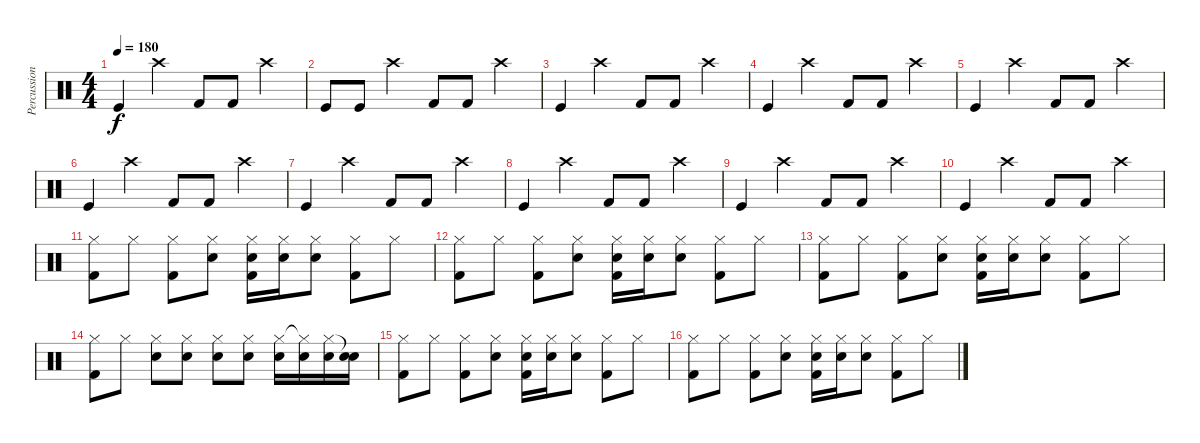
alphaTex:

\track ("Percussion" "Percussion") {instrument percussion}
\staff {score}
\articulation defaults
\ts (4 4)
\tempo 180
\clef neutral
\ks c "Kick (hit)".4{dy f} "Crash high (hit)".4 "Kick (hit) 2".8 "Kick (hit) 2".8 "Crash high (hit)".4
|
"Kick (hit)".8 "Kick (hit)".8 "Crash high (hit)".4 "Kick (hit) 2".8 "Kick (hit) 2".8 "Crash high (hit)".4 |
"Kick (hit)".4 "Crash high (hit)".4 "Kick (hit) 2".8 "Kick (hit) 2".8 "Crash high (hit)".4 |
"Kick (hit)".4 "Crash high (hit)".4 "Kick (hit) 2".8 "Kick (hit) 2".8 "Crash high (hit)".4 |
"Kick (hit)".4 "Crash high (hit)".4 "Kick (hit) 2".8 "Kick (hit) 2".8 "Crash high (hit)".4 |
"Kick (hit)".4 "Crash high (hit)".4 "Kick (hit) 2".8 "Kick (hit) 2".8 "Crash high (hit)".4 |
"Kick (hit)".4 "Crash high (hit)".4 "Kick (hit) 2".8 "Kick (hit) 2".8 "Crash high (hit)".4 |
"Kick (hit)".4 "Crash high (hit)".4 "Kick (hit) 2".8 "Kick (hit) 2".8 "Crash high (hit)".4 |
"Kick (hit)".4 "Crash high (hit)".4 "Kick (hit) 2".8 "Kick (hit) 2".8 "Crash high (hit)".4 |
"Kick (hit)".4 "Crash high (hit)".4 "Kick (hit) 2".8 "Kick (hit) 2".8 "Crash high (hit)".4 |
("Hi-Hat (closed)" "Kick (hit) 2").8 "Hi-Hat (closed)".8 ("Hi-Hat (closed)" "Kick (hit) 2").8 ("Hi-Hat (closed)" "Electric Snare (hit)").8 ("Hi-Hat (closed)" "Electric Snare (hit)" "Kick (hit) 2").16 ("Hi-Hat (closed)" "Electric Snare (hit)").16 ("Hi-Hat (closed)" "Electric Snare (hit)").8 ("Hi-Hat (closed)" "Kick (hit) 2").8 "Hi-Hat (closed)".8 |
("Hi-Hat (closed)" "Kick (hit) 2").8 "Hi-Hat (closed)".8 ("Hi-Hat (closed)" "Kick (hit) 2").8 ("Hi-Hat (closed)" "Electric Snare (hit)").8 ("Hi-Hat (closed)" "Electric Snare (hit)" "Kick (hit) 2").16 ("Hi-Hat (closed)" "Electric Snare (hit)").16 ("Hi-Hat (closed)" "Electric Snare (hit)").8 ("Hi-Hat (closed)" "Kick (hit) 2").8 "Hi-Hat (closed)".8 |
("Hi-Hat (closed)" "Kick (hit) 2").8 "Hi-Hat (closed)".8 ("Hi-Hat (closed)" "Kick (hit) 2").8 ("Hi-Hat (closed)" "Electric Snare (hit)").8 ("Hi-Hat (closed)" "Electric Snare (hit)" "Kick (hit) 2").16 ("Hi-Hat (closed)" "Electric Snare (hit)").16 ("Hi-Hat (closed)" "Electric Snare (hit)").8 ("Hi-Hat (closed)" "Kick (hit) 2").8 "Hi-Hat (closed)".8 |
("Hi-Hat (closed)" "Kick (hit) 2").8 "Hi-Hat (closed)".8 ("Hi-Hat (closed)" "Electric Snare (hit)").8 ("Hi-Hat (closed)" "Electric Snare (hit)").8 ("Hi-Hat (closed)" "Electric Snare (hit)").8 ("Hi-Hat (closed)" "Electric Snare (hit)").8 ("Hi-Hat (closed)" "Electric Snare (hit)").16 ("Hi-Hat (closed)"{t} "Electric Snare (hit)").16 ("Hi-Hat (closed)" "Electric Snare (hit)").16 ("Snare (hit)"{t} "Electric Snare (hit)").16 |
("Hi-Hat (closed)" "Kick (hit) 2").8 "Hi-Hat (closed)".8 ("Hi-Hat (closed)" "Kick (hit) 2").8 ("Hi-Hat (closed)" "Electric Snare (hit)").8 ("Hi-Hat (closed)" "Electric Snare (hit)" "Kick (hit) 2").16 ("Hi-Hat (closed)" "Electric Snare (hit)").16 ("Hi-Hat (closed)" "Electric Snare (hit)").8 ("Hi-Hat (closed)" "Kick (hit) 2").8 "Hi-Hat (closed)".8 |
("Hi-Hat (closed)" "Kick (hit) 2").8 "Hi-Hat (closed)".8 ("Hi-Hat (closed)" "Kick (hit) 2").8 ("Hi-Hat (closed)" "Electric Snare (hit)").8 ("Hi-Hat (closed)" "Electric Snare (hit)" "Kick (hit) 2").16 ("Hi-Hat (closed)" "Electric Snare (hit)").16 ("Hi-Hat (closed)" "Electric Snare (hit)").8 ("Hi-Hat (closed)" "Kick (hit) 2").8 "Hi-Hat (closed)".8
